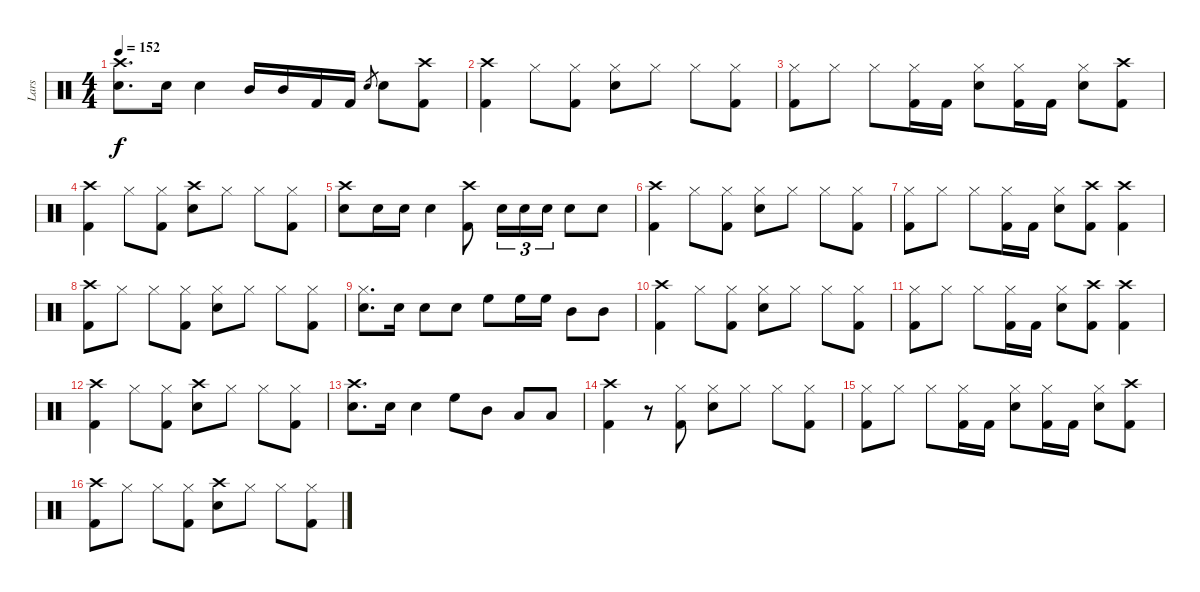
\track ("Lars" "Lars") {instrument percussion}
\staff {score}
\articulation defaults
\ts (4 4)
\tempo 152
\clef neutral
\ks c
("Crash high (hit)" "Snare (hit) 2").8{d dy f} "Snare (hit) 2".16 "Snare (hit) 2".4 "Mid Tom (hit)".16 "Mid Tom (hit)".16 "Kick (hit) 2".16 "Kick (hit) 2".16 "Snare (hit) 2".8{gr} "Snare (hit) 2".8 ("Crash high (hit)" "Kick (hit) 2").8 |
("Crash high (hit)" "Kick (hit) 2").4 "Hi-Hat (closed)".8 ("Hi-Hat (closed)" "Kick (hit) 2").8 ("Hi-Hat (closed)" "Snare (hit) 2").8 "Hi-Hat (closed)".8 "Hi-Hat (closed)".8 ("Hi-Hat (closed)" "Kick (hit) 2").8 |
("Hi-Hat (closed)" "Kick (hit) 2").8 "Hi-Hat (closed)".8 "Hi-Hat (closed)".8 ("Hi-Hat (closed)" "Kick (hit) 2").16 "Kick (hit) 2".16 ("Hi-Hat (closed)" "Snare (hit) 2").8 ("Hi-Hat (closed)" "Kick (hit) 2").16 "Kick (hit) 2".16 ("Hi-Hat (closed)" "Snare (hit) 2").8 ("Crash high (hit)" "Kick (hit) 2").8 |
("Crash high (hit)" "Kick (hit) 2").4 "Hi-Hat (closed)".8 ("Hi-Hat (closed)" "Kick (hit) 2").8 ("Crash high (hit)" "Snare (hit) 2").8 "Hi-Hat (closed)".8 "Hi-Hat (closed)".8 ("Hi-Hat (closed)" "Kick (hit) 2").8 |
("Crash high (hit)" "Snare (hit) 2").8 "Snare (hit) 2".16 "Snare (hit) 2".16 "Snare (hit) 2".4 ("Crash high (hit)" "Kick (hit) 2").8 "Snare (hit) 2".16{tu (3 2)} "Snare (hit) 2".16{tu (3 2)} "Snare (hit) 2".16{tu (3 2)} "Snare (hit) 2".8 "Snare (hit) 2".8 |
("Crash high (hit)" "Kick (hit) 2").4 "Hi-Hat (closed)".8 ("Hi-Hat (closed)" "Kick (hit) 2").8 ("Hi-Hat (closed)" "Snare (hit) 2").8 "Hi-Hat (closed)".8 "Hi-Hat (closed)".8 ("Hi-Hat (closed)" "Kick (hit) 2").8 |
("Hi-Hat (closed)" "Kick (hit) 2").8 "Hi-Hat (closed)".8 "Hi-Hat (closed)".8 ("Hi-Hat (closed)" "Kick (hit) 2").16 "Kick (hit) 2".16 ("Hi-Hat (closed)" "Snare (hit) 2").8 ("Crash high (hit)" "Kick (hit) 2").8 ("Crash high (hit)" "Kick (hit) 2").4 |
("Crash high (hit)" "Kick (hit) 2").8 "Hi-Hat (closed)".8 "Hi-Hat (closed)".8 ("Hi-Hat (closed)" "Kick (hit) 2").8 ("Hi-Hat (closed)" "Snare (hit) 2").8 "Hi-Hat (closed)".8 "Hi-Hat (closed)".8 ("Hi-Hat (closed)" "Kick (hit) 2").8 |
("Hi-Hat (closed)" "Snare (hit) 2").8{d} "Snare (hit) 2".16 "Snare (hit) 2".8 "Snare (hit) 2".8 "High Floor Tom (hit)".8 "High Floor Tom (hit)".16 "High Floor Tom (hit)".16 "Mid Tom (hit)".8 "Mid Tom (hit)".8 |
("Crash high (hit)" "Kick (hit) 2").4 "Hi-Hat (closed)".8 ("Hi-Hat (closed)" "Kick (hit) 2").8 ("Hi-Hat (closed)" "Snare (hit) 2").8 "Hi-Hat (closed)".8 "Hi-Hat (closed)".8 ("Hi-Hat (closed)" "Kick (hit) 2").8 |
("Hi-Hat (closed)" "Kick (hit) 2").8 "Hi-Hat (closed)".8 "Hi-Hat (closed)".8 ("Hi-Hat (closed)" "Kick (hit) 2").16 "Kick (hit) 2".16 ("Hi-Hat (closed)" "Snare (hit) 2").8 ("Crash high (hit)" "Kick (hit) 2").8 ("Crash high (hit)" "Kick (hit) 2").4 |
("Crash high (hit)" "Kick (hit) 2").4 "Hi-Hat (closed)".8 ("Hi-Hat (closed)" "Kick (hit) 2").8 ("Crash high (hit)" "Snare (hit) 2").8 "Hi-Hat (closed)".8 "Hi-Hat (closed)".8 ("Hi-Hat (closed)" "Kick (hit) 2").8 |
("Crash high (hit)" "Snare (hit) 2").8{d} "Snare (hit) 2".16 "Snare (hit) 2".4 "High Floor Tom (hit)".8 "Mid Tom (hit)".8 "Low Tom (hit)".8 "Low Floor Tom (hit)".8 |
("Crash high (hit)" "Kick (hit) 2").4 r.8 ("Hi-Hat (closed)" "Kick (hit) 2").8 ("Hi-Hat (closed)" "Snare (hit) 2").8 "Hi-Hat (closed)".8 "Hi-Hat (closed)".8 ("Hi-Hat (closed)" "Kick (hit) 2").8 |
("Hi-Hat (closed)" "Kick (hit) 2").8 "Hi-Hat (closed)".8 "Hi-Hat (closed)".8 ("Hi-Hat (closed)" "Kick (hit) 2").16 "Kick (hit) 2".16 ("Hi-Hat (closed)" "Snare (hit) 2").8 ("Hi-Hat (closed)" "Kick (hit) 2").16 "Kick (hit) 2".16 ("Hi-Hat (closed)" "Snare (hit) 2").8 ("Crash high (hit)" "Kick (hit) 2").8 |
("Crash high (hit)" "Kick (hit) 2").8 "Hi-Hat (closed)".8 "Hi-Hat (closed)".8 ("Hi-Hat (closed)" "Kick (hit) 2").8 ("Crash high (hit)" "Snare (hit) 2").8 "Hi-Hat (closed)".8 "Hi-Hat (closed)".8 ("Hi-Hat (closed)" "Kick (hit) 2").8
